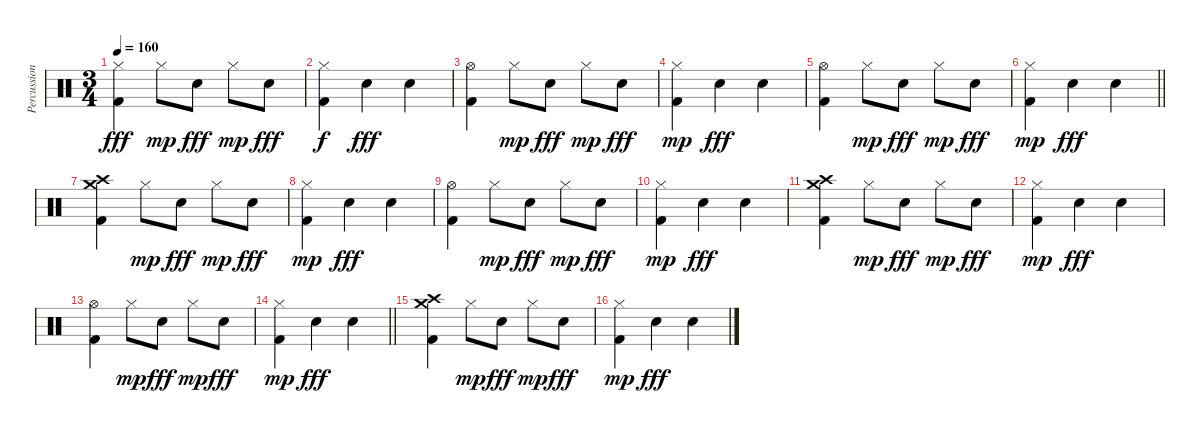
\track ("Percussion" "Percussion") {solo instrument percussion}
\staff {score}
\articulation defaults
\ts (3 4)
\tempo 160
\clef neutral
\ks c
("Hi-Hat (closed)" "Kick (hit) 2").4{dy fff} "Hi-Hat (closed)".8{dy mp} "Electric Snare (hit)".8{dy fff} "Hi-Hat (closed)".8{dy mp} "Electric Snare (hit)".8{dy fff} |
("Hi-Hat (closed)" "Kick (hit) 2").4{dy f} "Electric Snare (hit)".4{dy fff} "Electric Snare (hit)".4 |
("Hi-Hat (open)" "Kick (hit) 2").4 "Hi-Hat (closed)".8{dy mp} "Electric Snare (hit)".8{dy fff} "Hi-Hat (closed)".8{dy mp} "Electric Snare (hit)".8{dy fff} |
("Hi-Hat (closed)" "Kick (hit) 2").4{dy mp} "Electric Snare (hit)".4{dy fff} "Electric Snare (hit)".4 |
("Hi-Hat (open)" "Kick (hit) 2").4 "Hi-Hat (closed)".8{dy mp} "Electric Snare (hit)".8{dy fff} "Hi-Hat (closed)".8{dy mp} "Electric Snare (hit)".8{dy fff} |
\barLineRight lightlight
("Hi-Hat (closed)" "Kick (hit) 2").4{dy mp} "Electric Snare (hit)".4{dy fff} "Electric Snare (hit)".4 |
("Crash medium (hit)" "Crash high (hit)" "Kick (hit) 2").4 "Hi-Hat (closed)".8{dy mp} "Electric Snare (hit)".8{dy fff} "Hi-Hat (closed)".8{dy mp} "Electric Snare (hit)".8{dy fff} |
("Hi-Hat (closed)" "Kick (hit) 2").4{dy mp} "Electric Snare (hit)".4{dy fff} "Electric Snare (hit)".4 |
("Hi-Hat (open)" "Kick (hit) 2").4 "Hi-Hat (closed)".8{dy mp} "Electric Snare (hit)".8{dy fff} "Hi-Hat (closed)".8{dy mp} "Electric Snare (hit)".8{dy fff} |
("Hi-Hat (closed)" "Kick (hit) 2").4{dy mp} "Electric Snare (hit)".4{dy fff} "Electric Snare (hit)".4 |
("Crash medium (hit)" "Crash high (hit)" "Kick (hit) 2").4 "Hi-Hat (closed)".8{dy mp} "Electric Snare (hit)".8{dy fff} "Hi-Hat (closed)".8{dy mp} "Electric Snare (hit)".8{dy fff} |
("Hi-Hat (closed)" "Kick (hit) 2").4{dy mp} "Electric Snare (hit)".4{dy fff} "Electric Snare (hit)".4 |
("Hi-Hat (open)" "Kick (hit) 2").4 "Hi-Hat (closed)".8{dy mp} "Electric Snare (hit)".8{dy fff} "Hi-Hat (closed)".8{dy mp} "Electric Snare (hit)".8{dy fff} |
\barLineRight lightlight
("Hi-Hat (closed)" "Kick (hit) 2").4{dy mp} "Electric Snare (hit)".4{dy fff} "Electric Snare (hit)".4 |
("Crash medium (hit)" "Crash high (hit)" "Kick (hit) 2").4 "Hi-Hat (closed)".8{dy mp} "Electric Snare (hit)".8{dy fff} "Hi-Hat (closed)".8{dy mp} "Electric Snare (hit)".8{dy fff} |
("Hi-Hat (closed)" "Kick (hit) 2").4{dy mp} "Electric Snare (hit)".4{dy fff} "Electric Snare (hit)".4
